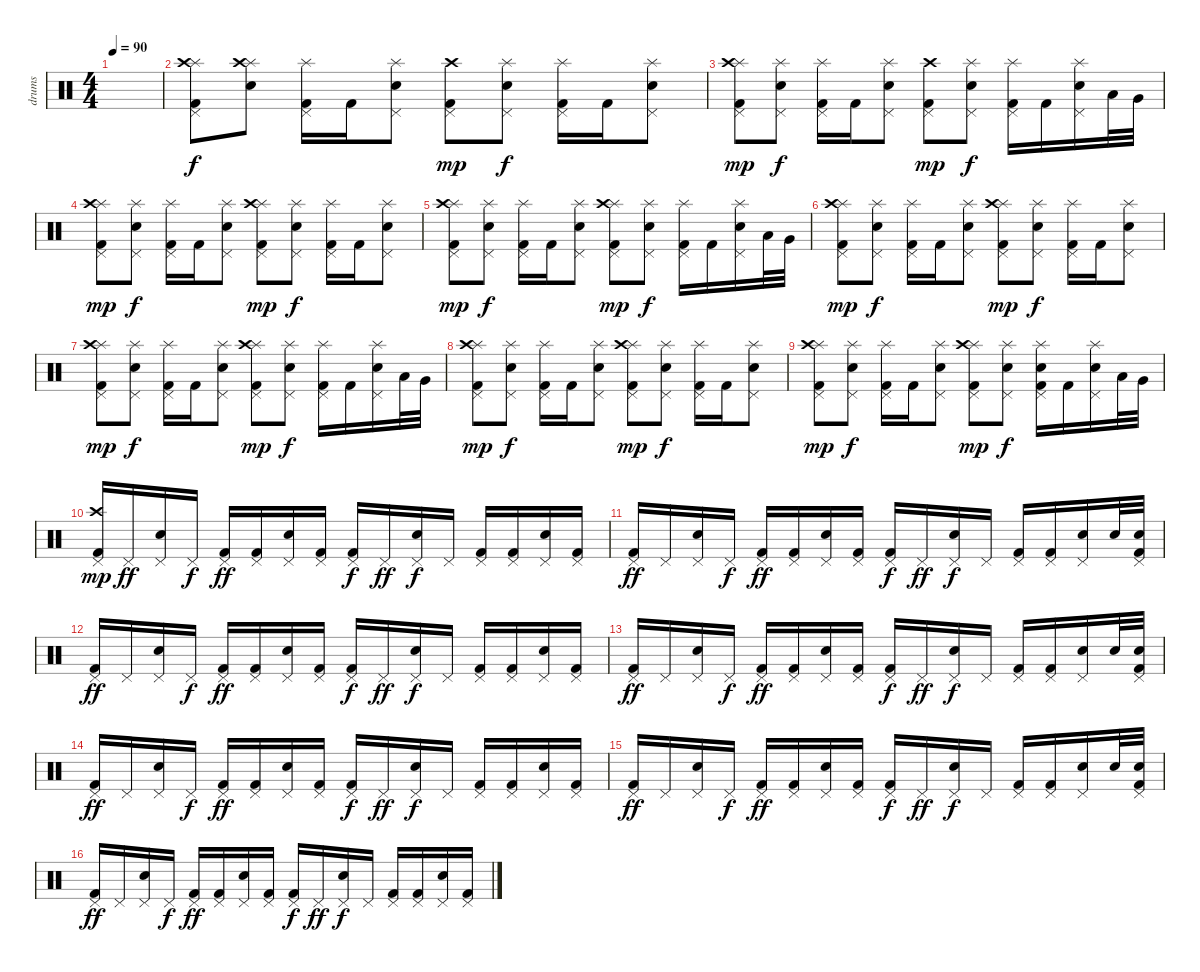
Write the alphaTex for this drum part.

\track ("drums" "drums") {instrument percussion}
\staff {score}
\articulation defaults
\ts (4 4)
\tempo 90
\clef neutral
\ks c
|
("Splash (hit)" "Pedal Hi-Hat (hit)" "Crash high (hit)" "Kick (hit) 2").8 ("Splash (hit)" "Crash high (hit)" "Electric Snare (hit)").8 ("Splash (hit)" "Pedal Hi-Hat (hit)" "Kick (hit) 2").16 "Kick (hit) 2".16 ("Splash (hit)" "Pedal Hi-Hat (hit)" "Electric Snare (hit)").8 ("Pedal Hi-Hat (hit)" "Crash high (hit)" "Kick (hit) 2").8{dy mp} ("Splash (hit)" "Pedal Hi-Hat (hit)" "Electric Snare (hit)").8{dy f} ("Splash (hit)" "Pedal Hi-Hat (hit)" "Kick (hit) 2").16 "Kick (hit) 2".16 ("Splash (hit)" "Pedal Hi-Hat (hit)" "Electric Snare (hit)").8 |
("Splash (hit)" "Pedal Hi-Hat (hit)" "Crash high (hit)" "Kick (hit) 2").8{dy mp} ("Splash (hit)" "Pedal Hi-Hat (hit)" "Electric Snare (hit)").8{dy f} ("Splash (hit)" "Pedal Hi-Hat (hit)" "Kick (hit) 2").16 "Kick (hit) 2".16 ("Splash (hit)" "Pedal Hi-Hat (hit)" "Electric Snare (hit)").8 ("Pedal Hi-Hat (hit)" "Crash high (hit)" "Kick (hit) 2").8{dy mp} ("Splash (hit)" "Pedal Hi-Hat (hit)" "Electric Snare (hit)").8{dy f} ("Splash (hit)" "Pedal Hi-Hat (hit)" "Kick (hit) 2").16 "Kick (hit) 2".16 ("Splash (hit)" "Pedal Hi-Hat (hit)" "Electric Snare (hit)").16 "Low Tom (hit)".32 "Very Low Tom (hit)".32 |
("Splash (hit)" "Pedal Hi-Hat (hit)" "Crash high (hit)" "Kick (hit) 2").8{dy mp} ("Splash (hit)" "Pedal Hi-Hat (hit)" "Electric Snare (hit)").8{dy f} ("Splash (hit)" "Pedal Hi-Hat (hit)" "Kick (hit) 2").16 "Kick (hit) 2".16 ("Splash (hit)" "Pedal Hi-Hat (hit)" "Electric Snare (hit)").8 ("Splash (hit)" "Pedal Hi-Hat (hit)" "Crash high (hit)" "Kick (hit) 2").8{dy mp} ("Splash (hit)" "Pedal Hi-Hat (hit)" "Electric Snare (hit)").8{dy f} ("Splash (hit)" "Pedal Hi-Hat (hit)" "Kick (hit) 2").16 "Kick (hit) 2".16 ("Splash (hit)" "Pedal Hi-Hat (hit)" "Electric Snare (hit)").8 |
("Splash (hit)" "Pedal Hi-Hat (hit)" "Crash high (hit)" "Kick (hit) 2").8{dy mp} ("Splash (hit)" "Pedal Hi-Hat (hit)" "Electric Snare (hit)").8{dy f} ("Splash (hit)" "Pedal Hi-Hat (hit)" "Kick (hit) 2").16 "Kick (hit) 2".16 ("Splash (hit)" "Pedal Hi-Hat (hit)" "Electric Snare (hit)").8 ("Splash (hit)" "Pedal Hi-Hat (hit)" "Crash high (hit)" "Kick (hit) 2").8{dy mp} ("Splash (hit)" "Pedal Hi-Hat (hit)" "Electric Snare (hit)").8{dy f} ("Splash (hit)" "Pedal Hi-Hat (hit)" "Kick (hit) 2").16 "Kick (hit) 2".16 ("Splash (hit)" "Pedal Hi-Hat (hit)" "Electric Snare (hit)").16 "Low Tom (hit)".32 "Very Low Tom (hit)".32 |
("Splash (hit)" "Pedal Hi-Hat (hit)" "Crash high (hit)" "Kick (hit) 2").8{dy mp} ("Splash (hit)" "Pedal Hi-Hat (hit)" "Electric Snare (hit)").8{dy f} ("Splash (hit)" "Pedal Hi-Hat (hit)" "Kick (hit) 2").16 "Kick (hit) 2".16 ("Splash (hit)" "Pedal Hi-Hat (hit)" "Electric Snare (hit)").8 ("Splash (hit)" "Pedal Hi-Hat (hit)" "Crash high (hit)" "Kick (hit) 2").8{dy mp} ("Splash (hit)" "Pedal Hi-Hat (hit)" "Electric Snare (hit)").8{dy f} ("Splash (hit)" "Pedal Hi-Hat (hit)" "Kick (hit) 2").16 "Kick (hit) 2".16 ("Splash (hit)" "Pedal Hi-Hat (hit)" "Electric Snare (hit)").8 |
("Splash (hit)" "Pedal Hi-Hat (hit)" "Crash high (hit)" "Kick (hit) 2").8{dy mp} ("Splash (hit)" "Pedal Hi-Hat (hit)" "Electric Snare (hit)").8{dy f} ("Splash (hit)" "Pedal Hi-Hat (hit)" "Kick (hit) 2").16 "Kick (hit) 2".16 ("Splash (hit)" "Pedal Hi-Hat (hit)" "Electric Snare (hit)").8 ("Splash (hit)" "Pedal Hi-Hat (hit)" "Crash high (hit)" "Kick (hit) 2").8{dy mp} ("Splash (hit)" "Pedal Hi-Hat (hit)" "Electric Snare (hit)").8{dy f} ("Splash (hit)" "Pedal Hi-Hat (hit)" "Kick (hit) 2").16 "Kick (hit) 2".16 ("Splash (hit)" "Pedal Hi-Hat (hit)" "Electric Snare (hit)").16 "Low Tom (hit)".32 "Very Low Tom (hit)".32 |
("Splash (hit)" "Pedal Hi-Hat (hit)" "Crash high (hit)" "Kick (hit) 2").8{dy mp} ("Splash (hit)" "Pedal Hi-Hat (hit)" "Electric Snare (hit)").8{dy f} ("Splash (hit)" "Pedal Hi-Hat (hit)" "Kick (hit) 2").16 "Kick (hit) 2".16 ("Splash (hit)" "Pedal Hi-Hat (hit)" "Electric Snare (hit)").8 ("Splash (hit)" "Pedal Hi-Hat (hit)" "Crash high (hit)" "Kick (hit) 2").8{dy mp} ("Splash (hit)" "Pedal Hi-Hat (hit)" "Electric Snare (hit)").8{dy f} ("Splash (hit)" "Pedal Hi-Hat (hit)" "Kick (hit) 2").16 "Kick (hit) 2".16 ("Splash (hit)" "Pedal Hi-Hat (hit)" "Electric Snare (hit)").8 |
("Splash (hit)" "Pedal Hi-Hat (hit)" "Crash high (hit)" "Kick (hit) 2").8{dy mp} ("Splash (hit)" "Pedal Hi-Hat (hit)" "Electric Snare (hit)").8{dy f} ("Splash (hit)" "Pedal Hi-Hat (hit)" "Kick (hit) 2").16 "Kick (hit) 2".16 ("Splash (hit)" "Pedal Hi-Hat (hit)" "Electric Snare (hit)").8 ("Splash (hit)" "Pedal Hi-Hat (hit)" "Crash high (hit)" "Kick (hit) 2").8{dy mp} ("Splash (hit)" "Pedal Hi-Hat (hit)" "Electric Snare (hit)").8{dy f} ("Splash (hit)" "Pedal Hi-Hat (hit)" "Electric Snare (hit)" "Kick (hit) 2").16 "Kick (hit) 2".16 ("Splash (hit)" "Pedal Hi-Hat (hit)" "Electric Snare (hit)").16 "Low Tom (hit)".32 "Very Low Tom (hit)".32 |
("Pedal Hi-Hat (hit)" "Crash high (hit)" "Kick (hit) 2").16{dy mp} "Pedal Hi-Hat (hit)".16{dy ff} ("Pedal Hi-Hat (hit)" "Electric Snare (hit)").16 "Pedal Hi-Hat (hit)".16{dy f} ("Pedal Hi-Hat (hit)" "Kick (hit) 2").16{dy ff} ("Pedal Hi-Hat (hit)" "Kick (hit) 2").16 ("Pedal Hi-Hat (hit)" "Electric Snare (hit)").16 ("Pedal Hi-Hat (hit)" "Kick (hit) 2").16 ("Pedal Hi-Hat (hit)" "Kick (hit) 2").16{dy f} "Pedal Hi-Hat (hit)".16{dy ff} ("Pedal Hi-Hat (hit)" "Electric Snare (hit)").16{dy f} "Pedal Hi-Hat (hit)".16 ("Pedal Hi-Hat (hit)" "Kick (hit) 2").16 ("Pedal Hi-Hat (hit)" "Kick (hit) 2").16 ("Pedal Hi-Hat (hit)" "Electric Snare (hit)").16 ("Pedal Hi-Hat (hit)" "Kick (hit) 2").16 |
("Pedal Hi-Hat (hit)" "Kick (hit) 2").16{dy ff} "Pedal Hi-Hat (hit)".16 ("Pedal Hi-Hat (hit)" "Electric Snare (hit)").16 "Pedal Hi-Hat (hit)".16{dy f} ("Pedal Hi-Hat (hit)" "Kick (hit) 2").16{dy ff} ("Pedal Hi-Hat (hit)" "Kick (hit) 2").16 ("Pedal Hi-Hat (hit)" "Electric Snare (hit)").16 ("Pedal Hi-Hat (hit)" "Kick (hit) 2").16 ("Pedal Hi-Hat (hit)" "Kick (hit) 2").16{dy f} "Pedal Hi-Hat (hit)".16{dy ff} ("Pedal Hi-Hat (hit)" "Electric Snare (hit)").16{dy f} "Pedal Hi-Hat (hit)".16 ("Pedal Hi-Hat (hit)" "Kick (hit) 2").16 ("Pedal Hi-Hat (hit)" "Kick (hit) 2").16 ("Pedal Hi-Hat (hit)" "Electric Snare (hit)").16 "Electric Snare (hit)".32 ("Pedal Hi-Hat (hit)" "Electric Snare (hit)" "Kick (hit) 2").32 |
("Pedal Hi-Hat (hit)" "Kick (hit) 2").16{dy ff} "Pedal Hi-Hat (hit)".16 ("Pedal Hi-Hat (hit)" "Electric Snare (hit)").16 "Pedal Hi-Hat (hit)".16{dy f} ("Pedal Hi-Hat (hit)" "Kick (hit) 2").16{dy ff} ("Pedal Hi-Hat (hit)" "Kick (hit) 2").16 ("Pedal Hi-Hat (hit)" "Electric Snare (hit)").16 ("Pedal Hi-Hat (hit)" "Kick (hit) 2").16 ("Pedal Hi-Hat (hit)" "Kick (hit) 2").16{dy f} "Pedal Hi-Hat (hit)".16{dy ff} ("Pedal Hi-Hat (hit)" "Electric Snare (hit)").16{dy f} "Pedal Hi-Hat (hit)".16 ("Pedal Hi-Hat (hit)" "Kick (hit) 2").16 ("Pedal Hi-Hat (hit)" "Kick (hit) 2").16 ("Pedal Hi-Hat (hit)" "Electric Snare (hit)").16 ("Pedal Hi-Hat (hit)" "Kick (hit) 2").16 |
("Pedal Hi-Hat (hit)" "Kick (hit) 2").16{dy ff} "Pedal Hi-Hat (hit)".16 ("Pedal Hi-Hat (hit)" "Electric Snare (hit)").16 "Pedal Hi-Hat (hit)".16{dy f} ("Pedal Hi-Hat (hit)" "Kick (hit) 2").16{dy ff} ("Pedal Hi-Hat (hit)" "Kick (hit) 2").16 ("Pedal Hi-Hat (hit)" "Electric Snare (hit)").16 ("Pedal Hi-Hat (hit)" "Kick (hit) 2").16 ("Pedal Hi-Hat (hit)" "Kick (hit) 2").16{dy f} "Pedal Hi-Hat (hit)".16{dy ff} ("Pedal Hi-Hat (hit)" "Electric Snare (hit)").16{dy f} "Pedal Hi-Hat (hit)".16 ("Pedal Hi-Hat (hit)" "Kick (hit) 2").16 ("Pedal Hi-Hat (hit)" "Kick (hit) 2").16 ("Pedal Hi-Hat (hit)" "Electric Snare (hit)").16 "Electric Snare (hit)".32 ("Pedal Hi-Hat (hit)" "Electric Snare (hit)" "Kick (hit) 2").32 |
("Pedal Hi-Hat (hit)" "Kick (hit) 2").16{dy ff} "Pedal Hi-Hat (hit)".16 ("Pedal Hi-Hat (hit)" "Electric Snare (hit)").16 "Pedal Hi-Hat (hit)".16{dy f} ("Pedal Hi-Hat (hit)" "Kick (hit) 2").16{dy ff} ("Pedal Hi-Hat (hit)" "Kick (hit) 2").16 ("Pedal Hi-Hat (hit)" "Electric Snare (hit)").16 ("Pedal Hi-Hat (hit)" "Kick (hit) 2").16 ("Pedal Hi-Hat (hit)" "Kick (hit) 2").16{dy f} "Pedal Hi-Hat (hit)".16{dy ff} ("Pedal Hi-Hat (hit)" "Electric Snare (hit)").16{dy f} "Pedal Hi-Hat (hit)".16 ("Pedal Hi-Hat (hit)" "Kick (hit) 2").16 ("Pedal Hi-Hat (hit)" "Kick (hit) 2").16 ("Pedal Hi-Hat (hit)" "Electric Snare (hit)").16 ("Pedal Hi-Hat (hit)" "Kick (hit) 2").16 |
("Pedal Hi-Hat (hit)" "Kick (hit) 2").16{dy ff} "Pedal Hi-Hat (hit)".16 ("Pedal Hi-Hat (hit)" "Electric Snare (hit)").16 "Pedal Hi-Hat (hit)".16{dy f} ("Pedal Hi-Hat (hit)" "Kick (hit) 2").16{dy ff} ("Pedal Hi-Hat (hit)" "Kick (hit) 2").16 ("Pedal Hi-Hat (hit)" "Electric Snare (hit)").16 ("Pedal Hi-Hat (hit)" "Kick (hit) 2").16 ("Pedal Hi-Hat (hit)" "Kick (hit) 2").16{dy f} "Pedal Hi-Hat (hit)".16{dy ff} ("Pedal Hi-Hat (hit)" "Electric Snare (hit)").16{dy f} "Pedal Hi-Hat (hit)".16 ("Pedal Hi-Hat (hit)" "Kick (hit) 2").16 ("Pedal Hi-Hat (hit)" "Kick (hit) 2").16 ("Pedal Hi-Hat (hit)" "Electric Snare (hit)").16 "Electric Snare (hit)".32 ("Pedal Hi-Hat (hit)" "Electric Snare (hit)" "Kick (hit) 2").32 |
("Pedal Hi-Hat (hit)" "Kick (hit) 2").16{dy ff} "Pedal Hi-Hat (hit)".16 ("Pedal Hi-Hat (hit)" "Electric Snare (hit)").16 "Pedal Hi-Hat (hit)".16{dy f} ("Pedal Hi-Hat (hit)" "Kick (hit) 2").16{dy ff} ("Pedal Hi-Hat (hit)" "Kick (hit) 2").16 ("Pedal Hi-Hat (hit)" "Electric Snare (hit)").16 ("Pedal Hi-Hat (hit)" "Kick (hit) 2").16 ("Pedal Hi-Hat (hit)" "Kick (hit) 2").16{dy f} "Pedal Hi-Hat (hit)".16{dy ff} ("Pedal Hi-Hat (hit)" "Electric Snare (hit)").16{dy f} "Pedal Hi-Hat (hit)".16 ("Pedal Hi-Hat (hit)" "Kick (hit) 2").16 ("Pedal Hi-Hat (hit)" "Kick (hit) 2").16 ("Pedal Hi-Hat (hit)" "Electric Snare (hit)").16 ("Pedal Hi-Hat (hit)" "Kick (hit) 2").16
